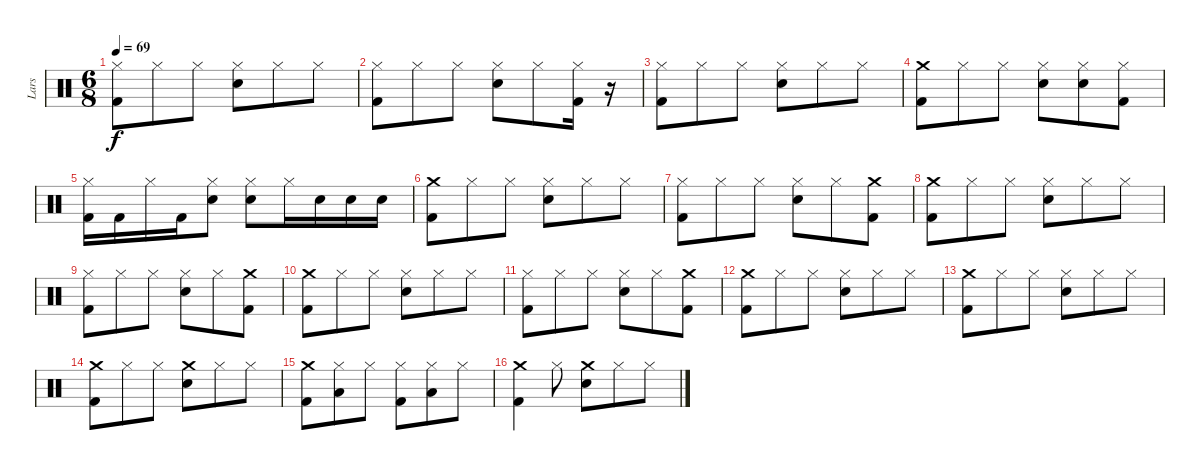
\track ("Lars" "Lars") {instrument percussion}
\staff {score}
\articulation defaults
\ts (6 8)
\tempo 69
\clef neutral
\ks c
("Kick (hit) 2" "Hi-Hat (closed)").8{dy f} "Hi-Hat (closed)".8 "Hi-Hat (closed)".8 ("Snare (hit) 2" "Hi-Hat (closed)").8 "Hi-Hat (closed)".8 "Hi-Hat (closed)".8 |
("Kick (hit) 2" "Hi-Hat (closed)").8 "Hi-Hat (closed)".8 "Hi-Hat (closed)".8 ("Snare (hit) 2" "Hi-Hat (closed)").8 "Hi-Hat (closed)".8 ("Kick (hit) 2" "Hi-Hat (closed)").16 r.16 |
("Kick (hit) 2" "Hi-Hat (closed)").8 "Hi-Hat (closed)".8 "Hi-Hat (closed)".8 ("Snare (hit) 2" "Hi-Hat (closed)").8 "Hi-Hat (closed)".8 "Hi-Hat (closed)".8 |
("Kick (hit) 2" "Crash medium (hit)").8 "Hi-Hat (closed)".8 "Hi-Hat (closed)".8 ("Snare (hit) 2" "Hi-Hat (closed)").8 ("Snare (hit) 2" "Hi-Hat (closed)").8 ("Kick (hit) 2" "Hi-Hat (closed)").8 |
("Kick (hit) 2" "Hi-Hat (closed)").16 "Kick (hit) 2".16 "Hi-Hat (closed)".16 "Kick (hit) 2".16 ("Snare (hit) 2" "Hi-Hat (closed)").8 ("Snare (hit) 2" "Hi-Hat (closed)").8 "Hi-Hat (closed)".16 "Snare (hit) 2".16 "Snare (hit) 2".16 "Snare (hit) 2".16 |
("Kick (hit) 2" "Crash medium (hit)").8 "Hi-Hat (closed)".8 "Hi-Hat (closed)".8 ("Snare (hit) 2" "Hi-Hat (closed)").8 "Hi-Hat (closed)".8 "Hi-Hat (closed)".8 |
("Kick (hit) 2" "Hi-Hat (closed)").8 "Hi-Hat (closed)".8 "Hi-Hat (closed)".8 ("Snare (hit) 2" "Hi-Hat (closed)").8 "Hi-Hat (closed)".8 ("Kick (hit) 2" "Crash medium (hit)").8 |
("Kick (hit) 2" "Crash medium (hit)").8 "Hi-Hat (closed)".8 "Hi-Hat (closed)".8 ("Snare (hit) 2" "Hi-Hat (closed)").8 "Hi-Hat (closed)".8 "Hi-Hat (closed)".8 |
("Kick (hit) 2" "Hi-Hat (closed)").8 "Hi-Hat (closed)".8 "Hi-Hat (closed)".8 ("Snare (hit) 2" "Hi-Hat (closed)").8 "Hi-Hat (closed)".8 ("Kick (hit) 2" "Crash medium (hit)").8 |
("Crash medium (hit)" "Kick (hit) 2").8 "Hi-Hat (closed)".8 "Hi-Hat (closed)".8 ("Snare (hit) 2" "Hi-Hat (closed)").8 "Hi-Hat (closed)".8 "Hi-Hat (closed)".8 |
("Hi-Hat (closed)" "Kick (hit) 2").8 "Hi-Hat (closed)".8 "Hi-Hat (closed)".8 ("Snare (hit) 2" "Hi-Hat (closed)").8 "Hi-Hat (closed)".8 ("Crash medium (hit)" "Kick (hit) 2").8 |
("Kick (hit) 2" "Crash medium (hit)").8 "Hi-Hat (closed)".8 "Hi-Hat (closed)".8 ("Snare (hit) 2" "Hi-Hat (closed)").8 "Hi-Hat (closed)".8 "Hi-Hat (closed)".8 |
("Kick (hit) 2" "Crash medium (hit)").8 "Hi-Hat (closed)".8 "Hi-Hat (closed)".8 ("Snare (hit) 2" "Hi-Hat (closed)").8 "Hi-Hat (closed)".8 "Hi-Hat (closed)".8 |
("Crash medium (hit)" "Kick (hit) 2").8 "Hi-Hat (closed)".8 "Hi-Hat (closed)".8 ("Crash medium (hit)" "Snare (hit) 2").8 "Hi-Hat (closed)".8 "Hi-Hat (closed)".8 |
("Kick (hit) 2" "Crash medium (hit)").8 ("Low Tom (hit)" "Hi-Hat (closed)").8 "Hi-Hat (closed)".8 ("Kick (hit) 2" "Hi-Hat (closed)").8 ("Hi-Hat (closed)" "Low Tom (hit)").8 "Hi-Hat (closed)".8 |
("Kick (hit) 2" "Crash medium (hit)").4 "Hi-Hat (closed)".8 ("Crash medium (hit)" "Snare (hit) 2").8 "Hi-Hat (closed)".8 "Hi-Hat (closed)".8
